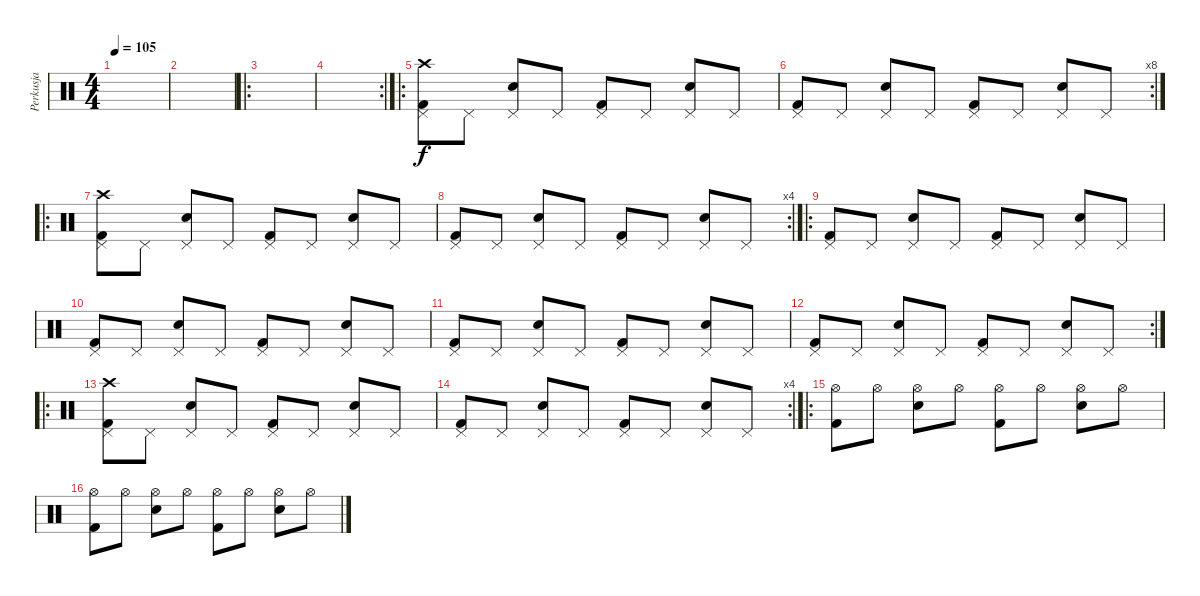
\track ("Perkusja" "Perkusja") {instrument percussion}
\staff {score}
\articulation defaults
\ts (4 4)
\tempo 105
\clef neutral
\ks c
|
|
\ro
|
\rc 2
|
\ro
("Crash high (hit)" "Kick (hit) 2" "Pedal Hi-Hat (hit)").8 "Pedal Hi-Hat (hit)".8 ("Snare (hit) 2" "Pedal Hi-Hat (hit)").8 "Pedal Hi-Hat (hit)".8 ("Kick (hit) 2" "Pedal Hi-Hat (hit)").8 "Pedal Hi-Hat (hit)".8 ("Snare (hit) 2" "Pedal Hi-Hat (hit)").8 "Pedal Hi-Hat (hit)".8 |
\rc 8
("Kick (hit) 2" "Pedal Hi-Hat (hit)").8 "Pedal Hi-Hat (hit)".8 ("Snare (hit) 2" "Pedal Hi-Hat (hit)").8 "Pedal Hi-Hat (hit)".8 ("Kick (hit) 2" "Pedal Hi-Hat (hit)").8 "Pedal Hi-Hat (hit)".8 ("Snare (hit) 2" "Pedal Hi-Hat (hit)").8 "Pedal Hi-Hat (hit)".8 |
\ro
("Crash high (hit)" "Kick (hit) 2" "Pedal Hi-Hat (hit)").8 "Pedal Hi-Hat (hit)".8 ("Snare (hit) 2" "Pedal Hi-Hat (hit)").8 "Pedal Hi-Hat (hit)".8 ("Kick (hit) 2" "Pedal Hi-Hat (hit)").8 "Pedal Hi-Hat (hit)".8 ("Snare (hit) 2" "Pedal Hi-Hat (hit)").8 "Pedal Hi-Hat (hit)".8 |
\rc 4
("Kick (hit) 2" "Pedal Hi-Hat (hit)").8 "Pedal Hi-Hat (hit)".8 ("Snare (hit) 2" "Pedal Hi-Hat (hit)").8 "Pedal Hi-Hat (hit)".8 ("Kick (hit) 2" "Pedal Hi-Hat (hit)").8 "Pedal Hi-Hat (hit)".8 ("Snare (hit) 2" "Pedal Hi-Hat (hit)").8 "Pedal Hi-Hat (hit)".8 |
\ro
("Kick (hit) 2" "Pedal Hi-Hat (hit)").8 "Pedal Hi-Hat (hit)".8 ("Snare (hit) 2" "Pedal Hi-Hat (hit)").8 "Pedal Hi-Hat (hit)".8 ("Kick (hit) 2" "Pedal Hi-Hat (hit)").8 "Pedal Hi-Hat (hit)".8 ("Snare (hit) 2" "Pedal Hi-Hat (hit)").8 "Pedal Hi-Hat (hit)".8 |
("Kick (hit) 2" "Pedal Hi-Hat (hit)").8 "Pedal Hi-Hat (hit)".8 ("Snare (hit) 2" "Pedal Hi-Hat (hit)").8 "Pedal Hi-Hat (hit)".8 ("Kick (hit) 2" "Pedal Hi-Hat (hit)").8 "Pedal Hi-Hat (hit)".8 ("Snare (hit) 2" "Pedal Hi-Hat (hit)").8 "Pedal Hi-Hat (hit)".8 |
("Kick (hit) 2" "Pedal Hi-Hat (hit)").8 "Pedal Hi-Hat (hit)".8 ("Snare (hit) 2" "Pedal Hi-Hat (hit)").8 "Pedal Hi-Hat (hit)".8 ("Kick (hit) 2" "Pedal Hi-Hat (hit)").8 "Pedal Hi-Hat (hit)".8 ("Snare (hit) 2" "Pedal Hi-Hat (hit)").8 "Pedal Hi-Hat (hit)".8 |
\rc 2
("Kick (hit) 2" "Pedal Hi-Hat (hit)").8 "Pedal Hi-Hat (hit)".8 ("Snare (hit) 2" "Pedal Hi-Hat (hit)").8 "Pedal Hi-Hat (hit)".8 ("Kick (hit) 2" "Pedal Hi-Hat (hit)").8 "Pedal Hi-Hat (hit)".8 ("Snare (hit) 2" "Pedal Hi-Hat (hit)").8 "Pedal Hi-Hat (hit)".8 |
\ro
("Crash high (hit)" "Kick (hit) 2" "Pedal Hi-Hat (hit)").8 "Pedal Hi-Hat (hit)".8 ("Snare (hit) 2" "Pedal Hi-Hat (hit)").8 "Pedal Hi-Hat (hit)".8 ("Kick (hit) 2" "Pedal Hi-Hat (hit)").8 "Pedal Hi-Hat (hit)".8 ("Snare (hit) 2" "Pedal Hi-Hat (hit)").8 "Pedal Hi-Hat (hit)".8 |
\rc 4
("Kick (hit) 2" "Pedal Hi-Hat (hit)").8 "Pedal Hi-Hat (hit)".8 ("Snare (hit) 2" "Pedal Hi-Hat (hit)").8 "Pedal Hi-Hat (hit)".8 ("Kick (hit) 2" "Pedal Hi-Hat (hit)").8 "Pedal Hi-Hat (hit)".8 ("Snare (hit) 2" "Pedal Hi-Hat (hit)").8 "Pedal Hi-Hat (hit)".8 |
\ro
("Kick (hit) 2" "Hi-Hat (open)").8 "Hi-Hat (open)".8 ("Snare (hit) 2" "Hi-Hat (open)").8 "Hi-Hat (open)".8 ("Kick (hit) 2" "Hi-Hat (open)").8 "Hi-Hat (open)".8 ("Snare (hit) 2" "Hi-Hat (open)").8 "Hi-Hat (open)".8 |
("Kick (hit) 2" "Hi-Hat (open)").8 "Hi-Hat (open)".8 ("Snare (hit) 2" "Hi-Hat (open)").8 "Hi-Hat (open)".8 ("Kick (hit) 2" "Hi-Hat (open)").8 "Hi-Hat (open)".8 ("Snare (hit) 2" "Hi-Hat (open)").8 "Hi-Hat (open)".8
